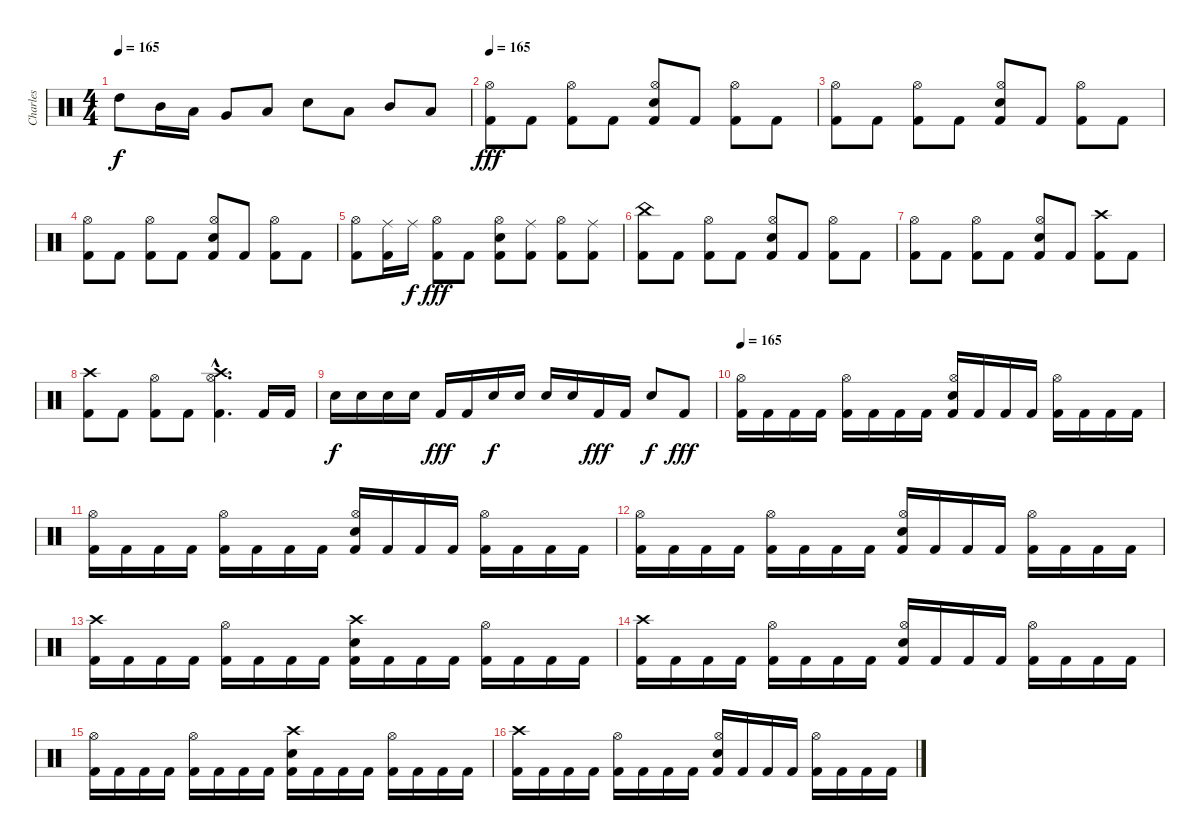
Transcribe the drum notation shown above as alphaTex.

\track ("Charles" "Charles") {instrument percussion}
\staff {score}
\articulation defaults
\ts (4 4)
\tempo 165
\clef neutral
\ks c "High Tom (hit)".8{dy f} "Mid Tom (hit)".16 "Low Tom (hit)".16 "Very Low Tom (hit)".8 "Low Floor Tom (hit)".8 "Electric Snare (hit)".8 "Low Tom (hit)".8 "Mid Tom (hit)".8 "Low Tom (hit)".8
|
\tempo 165
("Hi-Hat (open)" "Kick (hit) 2").8{dy fff} "Kick (hit) 2".8 ("Hi-Hat (open)" "Kick (hit) 2").8 "Kick (hit) 2".8 ("Electric Snare (hit)" "Hi-Hat (open)" "Kick (hit) 2").8 "Kick (hit) 2".8 ("Hi-Hat (open)" "Kick (hit) 2").8 "Kick (hit) 2".8 |
("Hi-Hat (open)" "Kick (hit) 2").8 "Kick (hit) 2".8 ("Hi-Hat (open)" "Kick (hit) 2").8 "Kick (hit) 2".8 ("Electric Snare (hit)" "Hi-Hat (open)" "Kick (hit) 2").8 "Kick (hit) 2".8 ("Hi-Hat (open)" "Kick (hit) 2").8 "Kick (hit) 2".8 |
("Hi-Hat (open)" "Kick (hit) 2").8 "Kick (hit) 2".8 ("Hi-Hat (open)" "Kick (hit) 2").8 "Kick (hit) 2".8 ("Electric Snare (hit)" "Hi-Hat (open)" "Kick (hit) 2").8 "Kick (hit) 2".8 ("Hi-Hat (open)" "Kick (hit) 2").8 "Kick (hit) 2".8 |
("Hi-Hat (open)" "Kick (hit) 2").8 ("Ride (middle)" "Kick (hit) 2").16 "Ride (middle)".16{dy f} ("Hi-Hat (open)" "Kick (hit) 2").8{dy fff} "Kick (hit) 2".8 ("Electric Snare (hit)" "Hi-Hat (open)" "Kick (hit) 2").8 ("Ride (middle)" "Kick (hit) 2").8 ("Hi-Hat (open)" "Kick (hit) 2").8 ("Ride (middle)" "Kick (hit) 2").8 |
("China (hit)" "Kick (hit) 2").8 "Kick (hit) 2".8 ("Hi-Hat (open)" "Kick (hit) 2").8 "Kick (hit) 2".8 ("Electric Snare (hit)" "Hi-Hat (open)" "Kick (hit) 2").8 "Kick (hit) 2".8 ("Hi-Hat (open)" "Kick (hit) 2").8 "Kick (hit) 2".8 |
("Hi-Hat (open)" "Kick (hit) 2").8 "Kick (hit) 2".8 ("Hi-Hat (open)" "Kick (hit) 2").8 "Kick (hit) 2".8 ("Electric Snare (hit)" "Hi-Hat (open)" "Kick (hit) 2").8 "Kick (hit) 2".8 ("Crash high (hit)" "Kick (hit) 2").8 "Kick (hit) 2".8 |
("Crash high (hit)" "Kick (hit) 2").8 "Kick (hit) 2".8 ("Hi-Hat (open)" "Kick (hit) 2").8 "Kick (hit) 2".8 ("Crash high (hit)"{hac} "Hi-Hat (open)"{hac} "Kick (hit) 2"{hac}).4{d} "Kick (hit) 2".16 "Kick (hit) 2".16 |
"Electric Snare (hit)".16{dy f} "Electric Snare (hit)".16 "Electric Snare (hit)".16 "Electric Snare (hit)".16 "Kick (hit) 2".16{dy fff} "Kick (hit) 2".16 "Electric Snare (hit)".16{dy f} "Electric Snare (hit)".16 "Electric Snare (hit)".16 "Electric Snare (hit)".16 "Kick (hit) 2".16{dy fff} "Kick (hit) 2".16 "Electric Snare (hit)".8{dy f} "Kick (hit) 2".8{dy fff} |
\tempo 165
("Hi-Hat (open)" "Kick (hit) 2").16 "Kick (hit) 2".16 "Kick (hit) 2".16 "Kick (hit) 2".16 ("Hi-Hat (open)" "Kick (hit) 2").16 "Kick (hit) 2".16 "Kick (hit) 2".16 "Kick (hit) 2".16 ("Hi-Hat (open)" "Electric Snare (hit)" "Kick (hit) 2").16 "Kick (hit) 2".16 "Kick (hit) 2".16 "Kick (hit) 2".16 ("Hi-Hat (open)" "Kick (hit) 2").16 "Kick (hit) 2".16 "Kick (hit) 2".16 "Kick (hit) 2".16 |
("Hi-Hat (open)" "Kick (hit) 2").16 "Kick (hit) 2".16 "Kick (hit) 2".16 "Kick (hit) 2".16 ("Hi-Hat (open)" "Kick (hit) 2").16 "Kick (hit) 2".16 "Kick (hit) 2".16 "Kick (hit) 2".16 ("Hi-Hat (open)" "Electric Snare (hit)" "Kick (hit) 2").16 "Kick (hit) 2".16 "Kick (hit) 2".16 "Kick (hit) 2".16 ("Hi-Hat (open)" "Kick (hit) 2").16 "Kick (hit) 2".16 "Kick (hit) 2".16 "Kick (hit) 2".16 |
("Hi-Hat (open)" "Kick (hit) 2").16 "Kick (hit) 2".16 "Kick (hit) 2".16 "Kick (hit) 2".16 ("Hi-Hat (open)" "Kick (hit) 2").16 "Kick (hit) 2".16 "Kick (hit) 2".16 "Kick (hit) 2".16 ("Hi-Hat (open)" "Electric Snare (hit)" "Kick (hit) 2").16 "Kick (hit) 2".16 "Kick (hit) 2".16 "Kick (hit) 2".16 ("Hi-Hat (open)" "Kick (hit) 2").16 "Kick (hit) 2".16 "Kick (hit) 2".16 "Kick (hit) 2".16 |
("Crash high (hit)" "Kick (hit) 2").16 "Kick (hit) 2".16 "Kick (hit) 2".16 "Kick (hit) 2".16 ("Hi-Hat (open)" "Kick (hit) 2").16 "Kick (hit) 2".16 "Kick (hit) 2".16 "Kick (hit) 2".16 ("Crash high (hit)" "Electric Snare (hit)" "Kick (hit) 2").16 "Kick (hit) 2".16 "Kick (hit) 2".16 "Kick (hit) 2".16 ("Hi-Hat (open)" "Kick (hit) 2").16 "Kick (hit) 2".16 "Kick (hit) 2".16 "Kick (hit) 2".16 |
("Crash high (hit)" "Kick (hit) 2").16 "Kick (hit) 2".16 "Kick (hit) 2".16 "Kick (hit) 2".16 ("Hi-Hat (open)" "Kick (hit) 2").16 "Kick (hit) 2".16 "Kick (hit) 2".16 "Kick (hit) 2".16 ("Hi-Hat (open)" "Electric Snare (hit)" "Kick (hit) 2").16 "Kick (hit) 2".16 "Kick (hit) 2".16 "Kick (hit) 2".16 ("Hi-Hat (open)" "Kick (hit) 2").16 "Kick (hit) 2".16 "Kick (hit) 2".16 "Kick (hit) 2".16 |
("Hi-Hat (open)" "Kick (hit) 2").16 "Kick (hit) 2".16 "Kick (hit) 2".16 "Kick (hit) 2".16 ("Hi-Hat (open)" "Kick (hit) 2").16 "Kick (hit) 2".16 "Kick (hit) 2".16 "Kick (hit) 2".16 ("Crash high (hit)" "Electric Snare (hit)" "Kick (hit) 2").16 "Kick (hit) 2".16 "Kick (hit) 2".16 "Kick (hit) 2".16 ("Hi-Hat (open)" "Kick (hit) 2").16 "Kick (hit) 2".16 "Kick (hit) 2".16 "Kick (hit) 2".16 |
("Crash high (hit)" "Kick (hit) 2").16 "Kick (hit) 2".16 "Kick (hit) 2".16 "Kick (hit) 2".16 ("Hi-Hat (open)" "Kick (hit) 2").16 "Kick (hit) 2".16 "Kick (hit) 2".16 "Kick (hit) 2".16 ("Hi-Hat (open)" "Electric Snare (hit)" "Kick (hit) 2").16 "Kick (hit) 2".16 "Kick (hit) 2".16 "Kick (hit) 2".16 ("Hi-Hat (open)" "Kick (hit) 2").16 "Kick (hit) 2".16 "Kick (hit) 2".16 "Kick (hit) 2".16
